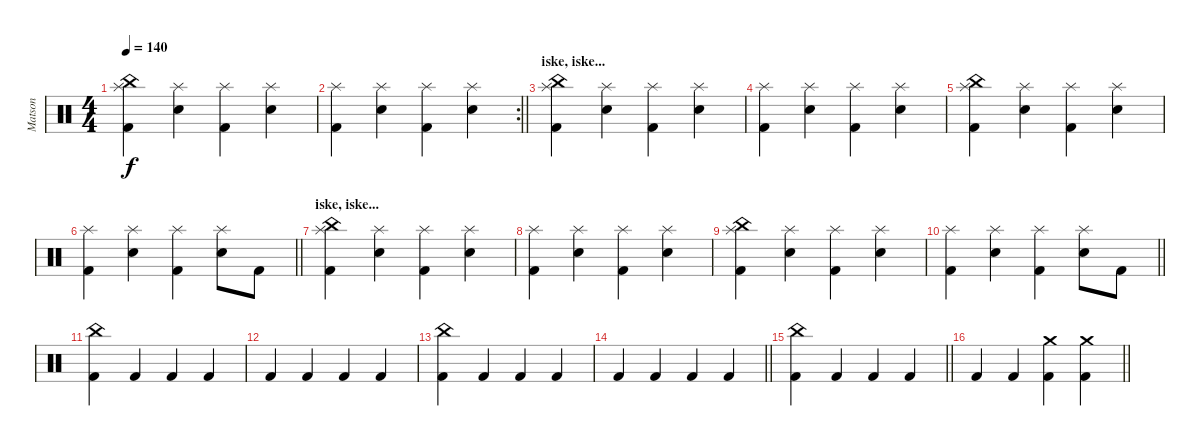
\track ("Matson" "Matson") {instrument percussion}
\staff {score}
\articulation defaults
\ts (4 4)
\tempo 140
\clef neutral
\ks c
("Kick (hit) 2" "Splash (hit)" "China (hit)").4{dy f} ("Snare (hit) 2" "Splash (hit)").4 ("Kick (hit) 2" "Splash (hit)").4 ("Snare (hit) 2" "Splash (hit)").4 |
\rc 2
\barLineRight lightlight
("Kick (hit) 2" "Splash (hit)").4 ("Snare (hit) 2" "Splash (hit)").4 ("Kick (hit) 2" "Splash (hit)").4 ("Snare (hit) 2" "Splash (hit)").4 |
\section ("" "iske, iske...")
("Kick (hit) 2" "Splash (hit)" "China (hit)").4 ("Snare (hit) 2" "Splash (hit)").4 ("Kick (hit) 2" "Splash (hit)").4 ("Snare (hit) 2" "Splash (hit)").4 |
("Kick (hit) 2" "Splash (hit)").4 ("Snare (hit) 2" "Splash (hit)").4 ("Kick (hit) 2" "Splash (hit)").4 ("Snare (hit) 2" "Splash (hit)").4 |
("Kick (hit) 2" "Splash (hit)" "China (hit)").4 ("Snare (hit) 2" "Splash (hit)").4 ("Kick (hit) 2" "Splash (hit)").4 ("Snare (hit) 2" "Splash (hit)").4 |
\barLineRight lightlight
("Kick (hit) 2" "Splash (hit)").4 ("Snare (hit) 2" "Splash (hit)").4 ("Kick (hit) 2" "Splash (hit)").4 ("Snare (hit) 2" "Splash (hit)").8 "Kick (hit) 2".8 |
\section ("" "iske, iske...")
("Kick (hit) 2" "Splash (hit)" "China (hit)").4 ("Snare (hit) 2" "Splash (hit)").4 ("Kick (hit) 2" "Splash (hit)").4 ("Snare (hit) 2" "Splash (hit)").4 |
("Kick (hit) 2" "Splash (hit)").4 ("Snare (hit) 2" "Splash (hit)").4 ("Kick (hit) 2" "Splash (hit)").4 ("Snare (hit) 2" "Splash (hit)").4 |
("Kick (hit) 2" "Splash (hit)" "China (hit)").4 ("Snare (hit) 2" "Splash (hit)").4 ("Kick (hit) 2" "Splash (hit)").4 ("Snare (hit) 2" "Splash (hit)").4 |
\barLineRight lightlight
("Kick (hit) 2" "Splash (hit)").4 ("Snare (hit) 2" "Splash (hit)").4 ("Kick (hit) 2" "Splash (hit)").4 ("Snare (hit) 2" "Splash (hit)").8 "Kick (hit) 2".8 |
\section ("" "")
("Kick (hit) 2" "China (hit)").4{volume 10} "Kick (hit) 2".4 "Kick (hit) 2".4 "Kick (hit) 2".4 |
"Kick (hit) 2".4 "Kick (hit) 2".4 "Kick (hit) 2".4 "Kick (hit) 2".4 |
("Kick (hit) 2" "China (hit)").4 "Kick (hit) 2".4 "Kick (hit) 2".4 "Kick (hit) 2".4 |
\barLineRight lightlight "Kick (hit) 2".4 "Kick (hit) 2".4 "Kick (hit) 2".4 "Kick (hit) 2".4
|
\barLineRight lightlight
("Kick (hit) 2" "China (hit)").4 "Kick (hit) 2".4 "Kick (hit) 2".4 "Kick (hit) 2".4 |
\section ("" "")
\barLineRight lightlight "Kick (hit) 2".4 "Kick (hit) 2".4
("Kick (hit) 2" "Crash medium (hit)").4{volume 16} ("Kick (hit) 2" "Crash medium (hit)").4
